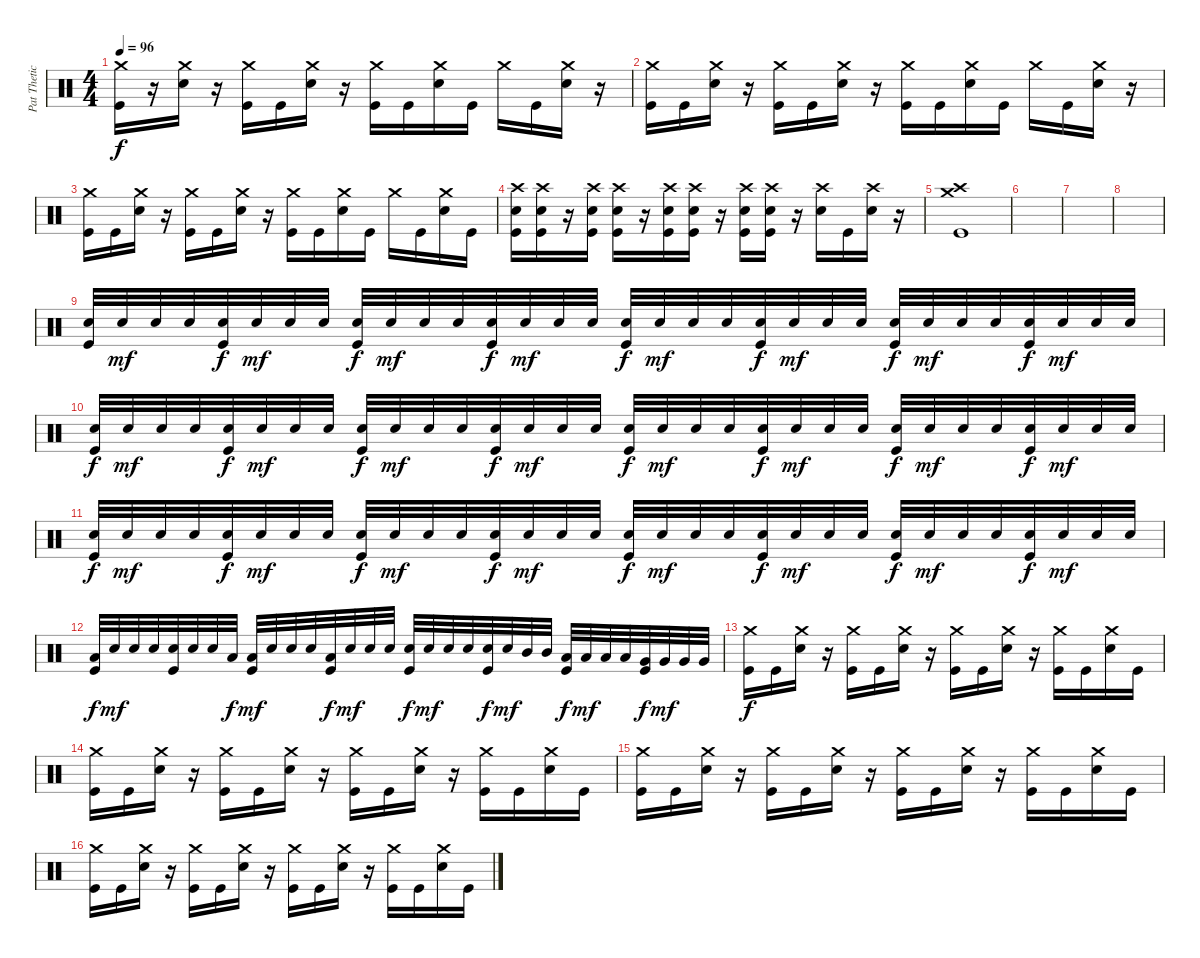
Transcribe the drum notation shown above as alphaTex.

\track ("Pat Thetic" "Pat Thetic") {instrument percussion}
\staff {score}
\articulation defaults
\ts (4 4)
\tempo 96
\clef neutral
\ks c
("Crash medium (hit)" "Kick (hit)").16{dy f} r.16 ("Crash medium (hit)" "Electric Snare (hit)").16 r.16 ("Crash medium (hit)" "Kick (hit)").16 "Kick (hit)".16 ("Crash medium (hit)" "Electric Snare (hit)").16 r.16 ("Crash medium (hit)" "Kick (hit)").16 "Kick (hit)".16 ("Crash medium (hit)" "Electric Snare (hit)").16 "Kick (hit)".16 "Crash medium (hit)".16 "Kick (hit)".16 ("Crash medium (hit)" "Electric Snare (hit)").16 r.16 |
("Crash medium (hit)" "Kick (hit)").16 "Kick (hit)".16 ("Crash medium (hit)" "Electric Snare (hit)").16 r.16 ("Crash medium (hit)" "Kick (hit)").16 "Kick (hit)".16 ("Crash medium (hit)" "Electric Snare (hit)").16 r.16 ("Crash medium (hit)" "Kick (hit)").16 "Kick (hit)".16 ("Crash medium (hit)" "Electric Snare (hit)").16 "Kick (hit)".16 "Crash medium (hit)".16 "Kick (hit)".16 ("Crash medium (hit)" "Electric Snare (hit)").16 r.16 |
("Crash medium (hit)" "Kick (hit)").16 "Kick (hit)".16 ("Crash medium (hit)" "Electric Snare (hit)").16 r.16 ("Crash medium (hit)" "Kick (hit)").16 "Kick (hit)".16 ("Crash medium (hit)" "Electric Snare (hit)").16 r.16 ("Crash medium (hit)" "Kick (hit)").16 "Kick (hit)".16 ("Crash medium (hit)" "Electric Snare (hit)").16 "Kick (hit)".16 "Crash medium (hit)".16 "Kick (hit)".16 ("Crash medium (hit)" "Electric Snare (hit)").16 "Kick (hit)".16 |
("Crash high (hit)" "Electric Snare (hit)" "Kick (hit)").16 ("Crash high (hit)" "Electric Snare (hit)" "Kick (hit)").16 r.16 ("Crash high (hit)" "Electric Snare (hit)" "Kick (hit)").16 ("Crash high (hit)" "Electric Snare (hit)" "Kick (hit)").16 r.16 ("Crash high (hit)" "Electric Snare (hit)" "Kick (hit)").16 ("Crash high (hit)" "Electric Snare (hit)" "Kick (hit)").16 r.16 ("Crash high (hit)" "Electric Snare (hit)" "Kick (hit)").16 ("Crash high (hit)" "Electric Snare (hit)" "Kick (hit)").16 r.16 ("Crash high (hit)" "Electric Snare (hit)").16 "Kick (hit)".16 ("Crash high (hit)" "Electric Snare (hit)").16 r.16 |
("Crash medium (hit)" "Crash high (hit)" "Kick (hit)").1 |
|
|
|
("Electric Snare (hit)" "Kick (hit)").32 "Electric Snare (hit)".32{dy mf} "Electric Snare (hit)".32 "Electric Snare (hit)".32 ("Electric Snare (hit)" "Kick (hit)").32{dy f} "Electric Snare (hit)".32{dy mf} "Electric Snare (hit)".32 "Electric Snare (hit)".32 ("Electric Snare (hit)" "Kick (hit)").32{dy f} "Electric Snare (hit)".32{dy mf} "Electric Snare (hit)".32 "Electric Snare (hit)".32 ("Electric Snare (hit)" "Kick (hit)").32{dy f} "Electric Snare (hit)".32{dy mf} "Electric Snare (hit)".32 "Electric Snare (hit)".32 ("Electric Snare (hit)" "Kick (hit)").32{dy f} "Electric Snare (hit)".32{dy mf} "Electric Snare (hit)".32 "Electric Snare (hit)".32 ("Electric Snare (hit)" "Kick (hit)").32{dy f} "Electric Snare (hit)".32{dy mf} "Electric Snare (hit)".32 "Electric Snare (hit)".32 ("Electric Snare (hit)" "Kick (hit)").32{dy f} "Electric Snare (hit)".32{dy mf} "Electric Snare (hit)".32 "Electric Snare (hit)".32 ("Electric Snare (hit)" "Kick (hit)").32{dy f} "Electric Snare (hit)".32{dy mf} "Electric Snare (hit)".32 "Electric Snare (hit)".32 |
("Electric Snare (hit)" "Kick (hit)").32{dy f} "Electric Snare (hit)".32{dy mf} "Electric Snare (hit)".32 "Electric Snare (hit)".32 ("Electric Snare (hit)" "Kick (hit)").32{dy f} "Electric Snare (hit)".32{dy mf} "Electric Snare (hit)".32 "Electric Snare (hit)".32 ("Electric Snare (hit)" "Kick (hit)").32{dy f} "Electric Snare (hit)".32{dy mf} "Electric Snare (hit)".32 "Electric Snare (hit)".32 ("Electric Snare (hit)" "Kick (hit)").32{dy f} "Electric Snare (hit)".32{dy mf} "Electric Snare (hit)".32 "Electric Snare (hit)".32 ("Electric Snare (hit)" "Kick (hit)").32{dy f} "Electric Snare (hit)".32{dy mf} "Electric Snare (hit)".32 "Electric Snare (hit)".32 ("Electric Snare (hit)" "Kick (hit)").32{dy f} "Electric Snare (hit)".32{dy mf} "Electric Snare (hit)".32 "Electric Snare (hit)".32 ("Electric Snare (hit)" "Kick (hit)").32{dy f} "Electric Snare (hit)".32{dy mf} "Electric Snare (hit)".32 "Electric Snare (hit)".32 ("Electric Snare (hit)" "Kick (hit)").32{dy f} "Electric Snare (hit)".32{dy mf} "Electric Snare (hit)".32 "Electric Snare (hit)".32 |
("Electric Snare (hit)" "Kick (hit)").32{dy f} "Electric Snare (hit)".32{dy mf} "Electric Snare (hit)".32 "Electric Snare (hit)".32 ("Electric Snare (hit)" "Kick (hit)").32{dy f} "Electric Snare (hit)".32{dy mf} "Electric Snare (hit)".32 "Electric Snare (hit)".32 ("Electric Snare (hit)" "Kick (hit)").32{dy f} "Electric Snare (hit)".32{dy mf} "Electric Snare (hit)".32 "Electric Snare (hit)".32 ("Electric Snare (hit)" "Kick (hit)").32{dy f} "Electric Snare (hit)".32{dy mf} "Electric Snare (hit)".32 "Electric Snare (hit)".32 ("Electric Snare (hit)" "Kick (hit)").32{dy f} "Electric Snare (hit)".32{dy mf} "Electric Snare (hit)".32 "Electric Snare (hit)".32 ("Electric Snare (hit)" "Kick (hit)").32{dy f} "Electric Snare (hit)".32{dy mf} "Electric Snare (hit)".32 "Electric Snare (hit)".32 ("Electric Snare (hit)" "Kick (hit)").32{dy f} "Electric Snare (hit)".32{dy mf} "Electric Snare (hit)".32 "Electric Snare (hit)".32 ("Electric Snare (hit)" "Kick (hit)").32{dy f} "Electric Snare (hit)".32{dy mf} "Electric Snare (hit)".32 "Electric Snare (hit)".32 |
("Low Tom (hit)" "Kick (hit)").32{dy f} "Electric Snare (hit)".32{dy mf} "Electric Snare (hit)".32 "Electric Snare (hit)".32 ("Electric Snare (hit)" "Kick (hit)").32 "Electric Snare (hit)".32 "Electric Snare (hit)".32 "Low Tom (hit)".32{dy f} ("Low Tom (hit)" "Kick (hit)").32{dy mf} "Electric Snare (hit)".32 "Electric Snare (hit)".32 "Electric Snare (hit)".32 ("Low Tom (hit)" "Kick (hit)").32{dy f} "Electric Snare (hit)".32{dy mf} "Electric Snare (hit)".32 "Electric Snare (hit)".32 ("Electric Snare (hit)" "Kick (hit)").32{dy f} "Electric Snare (hit)".32{dy mf} "Electric Snare (hit)".32 "Electric Snare (hit)".32 ("Electric Snare (hit)" "Kick (hit)").32{dy f} "Electric Snare (hit)".32{dy mf} "Mid Tom (hit)".32 "Mid Tom (hit)".32 ("Low Tom (hit)" "Kick (hit)").32{dy f} "Low Tom (hit)".32{dy mf} "Low Tom (hit)".32 "Low Tom (hit)".32 ("Very Low Tom (hit)" "Kick (hit)").32{dy f} "Very Low Tom (hit)".32{dy mf} "Very Low Tom (hit)".32 "Very Low Tom (hit)".32 |
("Crash medium (hit)" "Kick (hit)").16{dy f} "Kick (hit)".16 ("Crash medium (hit)" "Electric Snare (hit)").16 r.16 ("Crash medium (hit)" "Kick (hit)").16 "Kick (hit)".16 ("Crash medium (hit)" "Electric Snare (hit)").16 r.16 ("Crash medium (hit)" "Kick (hit)").16 "Kick (hit)".16 ("Crash medium (hit)" "Electric Snare (hit)").16 r.16 ("Crash medium (hit)" "Kick (hit)").16 "Kick (hit)".16 ("Crash medium (hit)" "Electric Snare (hit)").16 "Kick (hit)".16 |
("Crash medium (hit)" "Kick (hit)").16 "Kick (hit)".16 ("Crash medium (hit)" "Electric Snare (hit)").16 r.16 ("Crash medium (hit)" "Kick (hit)").16 "Kick (hit)".16 ("Crash medium (hit)" "Electric Snare (hit)").16 r.16 ("Crash medium (hit)" "Kick (hit)").16 "Kick (hit)".16 ("Crash medium (hit)" "Electric Snare (hit)").16 r.16 ("Crash medium (hit)" "Kick (hit)").16 "Kick (hit)".16 ("Crash medium (hit)" "Electric Snare (hit)").16 "Kick (hit)".16 |
("Crash medium (hit)" "Kick (hit)").16 "Kick (hit)".16 ("Crash medium (hit)" "Electric Snare (hit)").16 r.16 ("Crash medium (hit)" "Kick (hit)").16 "Kick (hit)".16 ("Crash medium (hit)" "Electric Snare (hit)").16 r.16 ("Crash medium (hit)" "Kick (hit)").16 "Kick (hit)".16 ("Crash medium (hit)" "Electric Snare (hit)").16 r.16 ("Crash medium (hit)" "Kick (hit)").16 "Kick (hit)".16 ("Crash medium (hit)" "Electric Snare (hit)").16 "Kick (hit)".16 |
("Crash medium (hit)" "Kick (hit)").16 "Kick (hit)".16 ("Crash medium (hit)" "Electric Snare (hit)").16 r.16 ("Crash medium (hit)" "Kick (hit)").16 "Kick (hit)".16 ("Crash medium (hit)" "Electric Snare (hit)").16 r.16 ("Crash medium (hit)" "Kick (hit)").16 "Kick (hit)".16 ("Crash medium (hit)" "Electric Snare (hit)").16 r.16 ("Crash medium (hit)" "Kick (hit)").16 "Kick (hit)".16 ("Crash medium (hit)" "Electric Snare (hit)").16 "Kick (hit)".16
